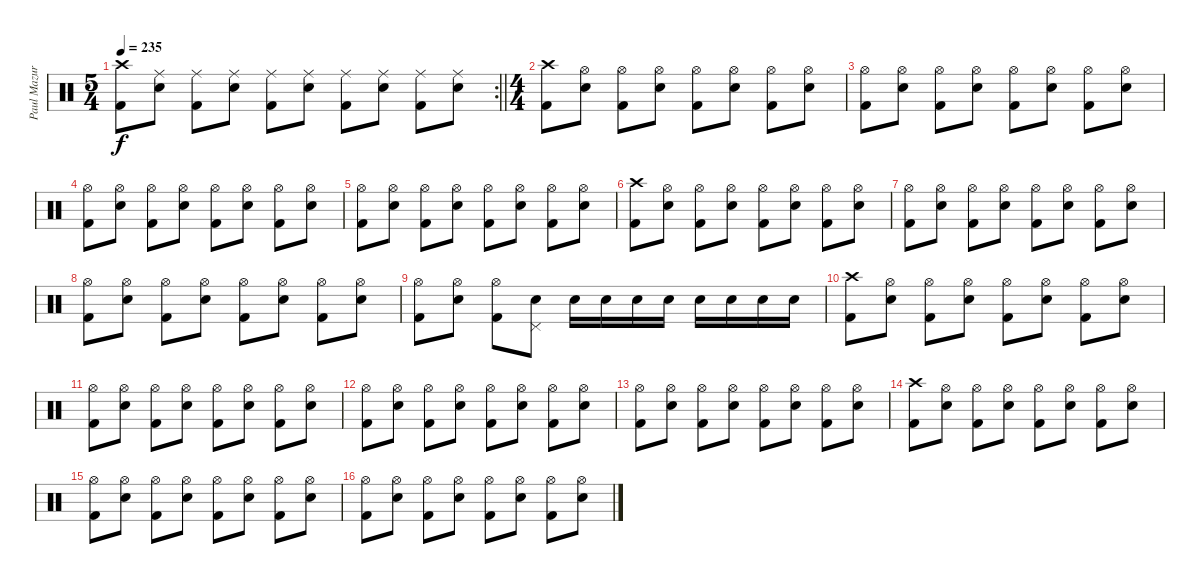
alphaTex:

\track ("Paul Mazurkiewicz" "Paul Mazur") {instrument percussion}
\staff {score}
\articulation defaults
\rc 2
\ts (5 4)
\tempo 235
\clef neutral
\barLineRight lightlight
\ks c
("Crash high (hit)" "Kick (hit) 2").8{dy f} ("Ride (middle)" "Electric Snare (hit)").8 ("Ride (middle)" "Kick (hit) 2").8 ("Ride (middle)" "Electric Snare (hit)").8 ("Ride (middle)" "Kick (hit) 2").8 ("Ride (middle)" "Electric Snare (hit)").8 ("Ride (middle)" "Kick (hit) 2").8 ("Ride (middle)" "Electric Snare (hit)").8 ("Ride (middle)" "Kick (hit) 2").8 ("Ride (middle)" "Electric Snare (hit)").8 |
\ts (4 4)
\section ("" "")
("Crash high (hit)" "Kick (hit) 2").8 ("Hi-Hat (open)" "Electric Snare (hit)").8 ("Hi-Hat (open)" "Kick (hit) 2").8 ("Hi-Hat (open)" "Electric Snare (hit)").8 ("Hi-Hat (open)" "Kick (hit) 2").8 ("Hi-Hat (open)" "Electric Snare (hit)").8 ("Hi-Hat (open)" "Kick (hit) 2").8 ("Hi-Hat (open)" "Electric Snare (hit)").8 |
("Hi-Hat (open)" "Kick (hit) 2").8 ("Hi-Hat (open)" "Electric Snare (hit)").8 ("Hi-Hat (open)" "Kick (hit) 2").8 ("Hi-Hat (open)" "Electric Snare (hit)").8 ("Hi-Hat (open)" "Kick (hit) 2").8 ("Hi-Hat (open)" "Electric Snare (hit)").8 ("Hi-Hat (open)" "Kick (hit) 2").8 ("Hi-Hat (open)" "Electric Snare (hit)").8 |
("Hi-Hat (open)" "Kick (hit) 2").8 ("Hi-Hat (open)" "Electric Snare (hit)").8 ("Hi-Hat (open)" "Kick (hit) 2").8 ("Hi-Hat (open)" "Electric Snare (hit)").8 ("Hi-Hat (open)" "Kick (hit) 2").8 ("Hi-Hat (open)" "Electric Snare (hit)").8 ("Hi-Hat (open)" "Kick (hit) 2").8 ("Hi-Hat (open)" "Electric Snare (hit)").8 |
("Hi-Hat (open)" "Kick (hit) 2").8 ("Hi-Hat (open)" "Electric Snare (hit)").8 ("Hi-Hat (open)" "Kick (hit) 2").8 ("Hi-Hat (open)" "Electric Snare (hit)").8 ("Hi-Hat (open)" "Kick (hit) 2").8 ("Hi-Hat (open)" "Electric Snare (hit)").8 ("Hi-Hat (open)" "Kick (hit) 2").8 ("Hi-Hat (open)" "Electric Snare (hit)").8 |
("Crash high (hit)" "Kick (hit) 2").8 ("Hi-Hat (open)" "Electric Snare (hit)").8 ("Hi-Hat (open)" "Kick (hit) 2").8 ("Hi-Hat (open)" "Electric Snare (hit)").8 ("Hi-Hat (open)" "Kick (hit) 2").8 ("Hi-Hat (open)" "Electric Snare (hit)").8 ("Hi-Hat (open)" "Kick (hit) 2").8 ("Hi-Hat (open)" "Electric Snare (hit)").8 |
("Hi-Hat (open)" "Kick (hit) 2").8 ("Hi-Hat (open)" "Electric Snare (hit)").8 ("Hi-Hat (open)" "Kick (hit) 2").8 ("Hi-Hat (open)" "Electric Snare (hit)").8 ("Hi-Hat (open)" "Kick (hit) 2").8 ("Hi-Hat (open)" "Electric Snare (hit)").8 ("Hi-Hat (open)" "Kick (hit) 2").8 ("Hi-Hat (open)" "Electric Snare (hit)").8 |
("Hi-Hat (open)" "Kick (hit) 2").8 ("Hi-Hat (open)" "Electric Snare (hit)").8 ("Hi-Hat (open)" "Kick (hit) 2").8 ("Hi-Hat (open)" "Electric Snare (hit)").8 ("Hi-Hat (open)" "Kick (hit) 2").8 ("Hi-Hat (open)" "Electric Snare (hit)").8 ("Hi-Hat (open)" "Kick (hit) 2").8 ("Hi-Hat (open)" "Electric Snare (hit)").8 |
("Hi-Hat (open)" "Kick (hit) 2").8 ("Hi-Hat (open)" "Electric Snare (hit)").8 ("Hi-Hat (open)" "Kick (hit) 2").8 ("Pedal Hi-Hat (hit)" "Electric Snare (hit)").8 "Electric Snare (hit)".16 "Electric Snare (hit)".16 "Electric Snare (hit)".16 "Electric Snare (hit)".16 "Electric Snare (hit)".16 "Electric Snare (hit)".16 "Electric Snare (hit)".16 "Electric Snare (hit)".16 |
("Crash high (hit)" "Kick (hit) 2").8 ("Hi-Hat (open)" "Electric Snare (hit)").8 ("Hi-Hat (open)" "Kick (hit) 2").8 ("Hi-Hat (open)" "Electric Snare (hit)").8 ("Hi-Hat (open)" "Kick (hit) 2").8 ("Hi-Hat (open)" "Electric Snare (hit)").8 ("Hi-Hat (open)" "Kick (hit) 2").8 ("Hi-Hat (open)" "Electric Snare (hit)").8 |
("Hi-Hat (open)" "Kick (hit) 2").8 ("Hi-Hat (open)" "Electric Snare (hit)").8 ("Hi-Hat (open)" "Kick (hit) 2").8 ("Hi-Hat (open)" "Electric Snare (hit)").8 ("Hi-Hat (open)" "Kick (hit) 2").8 ("Hi-Hat (open)" "Electric Snare (hit)").8 ("Hi-Hat (open)" "Kick (hit) 2").8 ("Hi-Hat (open)" "Electric Snare (hit)").8 |
("Hi-Hat (open)" "Kick (hit) 2").8 ("Hi-Hat (open)" "Electric Snare (hit)").8 ("Hi-Hat (open)" "Kick (hit) 2").8 ("Hi-Hat (open)" "Electric Snare (hit)").8 ("Hi-Hat (open)" "Kick (hit) 2").8 ("Hi-Hat (open)" "Electric Snare (hit)").8 ("Hi-Hat (open)" "Kick (hit) 2").8 ("Hi-Hat (open)" "Electric Snare (hit)").8 |
("Hi-Hat (open)" "Kick (hit) 2").8 ("Hi-Hat (open)" "Electric Snare (hit)").8 ("Hi-Hat (open)" "Kick (hit) 2").8 ("Hi-Hat (open)" "Electric Snare (hit)").8 ("Hi-Hat (open)" "Kick (hit) 2").8 ("Hi-Hat (open)" "Electric Snare (hit)").8 ("Hi-Hat (open)" "Kick (hit) 2").8 ("Hi-Hat (open)" "Electric Snare (hit)").8 |
("Crash high (hit)" "Kick (hit) 2").8 ("Hi-Hat (open)" "Electric Snare (hit)").8 ("Hi-Hat (open)" "Kick (hit) 2").8 ("Hi-Hat (open)" "Electric Snare (hit)").8 ("Hi-Hat (open)" "Kick (hit) 2").8 ("Hi-Hat (open)" "Electric Snare (hit)").8 ("Hi-Hat (open)" "Kick (hit) 2").8 ("Hi-Hat (open)" "Electric Snare (hit)").8 |
("Hi-Hat (open)" "Kick (hit) 2").8 ("Hi-Hat (open)" "Electric Snare (hit)").8 ("Hi-Hat (open)" "Kick (hit) 2").8 ("Hi-Hat (open)" "Electric Snare (hit)").8 ("Hi-Hat (open)" "Kick (hit) 2").8 ("Hi-Hat (open)" "Electric Snare (hit)").8 ("Hi-Hat (open)" "Kick (hit) 2").8 ("Hi-Hat (open)" "Electric Snare (hit)").8 |
("Hi-Hat (open)" "Kick (hit) 2").8 ("Hi-Hat (open)" "Electric Snare (hit)").8 ("Hi-Hat (open)" "Kick (hit) 2").8 ("Hi-Hat (open)" "Electric Snare (hit)").8 ("Hi-Hat (open)" "Kick (hit) 2").8 ("Hi-Hat (open)" "Electric Snare (hit)").8 ("Hi-Hat (open)" "Kick (hit) 2").8 ("Hi-Hat (open)" "Electric Snare (hit)").8
